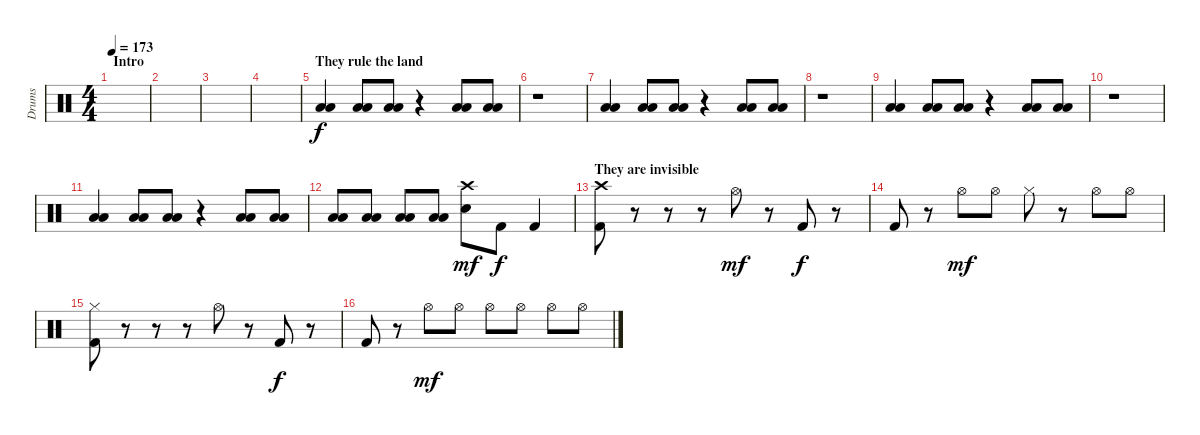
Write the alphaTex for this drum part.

\track ("Drums" "Drums") {instrument percussion}
\staff {score}
\articulation defaults
\ts (4 4)
\section ("" "Intro")
\tempo 173
\clef neutral
\ks c
|
|
|
|
\section ("" "They rule the land")
("Low Tom (hit)" "Low Floor Tom (hit)").4 ("Low Tom (hit)" "Low Floor Tom (hit)").8 ("Low Tom (hit)" "Low Floor Tom (hit)").8 r.4 ("Low Tom (hit)" "Low Floor Tom (hit)").8 ("Low Tom (hit)" "Low Floor Tom (hit)").8 |
r.1 |
("Low Tom (hit)" "Low Floor Tom (hit)").4 ("Low Tom (hit)" "Low Floor Tom (hit)").8 ("Low Tom (hit)" "Low Floor Tom (hit)").8 r.4 ("Low Tom (hit)" "Low Floor Tom (hit)").8 ("Low Tom (hit)" "Low Floor Tom (hit)").8 |
r.1 |
("Low Tom (hit)" "Low Floor Tom (hit)").4 ("Low Tom (hit)" "Low Floor Tom (hit)").8 ("Low Tom (hit)" "Low Floor Tom (hit)").8 r.4 ("Low Tom (hit)" "Low Floor Tom (hit)").8 ("Low Tom (hit)" "Low Floor Tom (hit)").8 |
r.1 |
("Low Tom (hit)" "Low Floor Tom (hit)").4 ("Low Tom (hit)" "Low Floor Tom (hit)").8 ("Low Tom (hit)" "Low Floor Tom (hit)").8 r.4 ("Low Tom (hit)" "Low Floor Tom (hit)").8 ("Low Tom (hit)" "Low Floor Tom (hit)").8 |
("Low Tom (hit)" "Low Floor Tom (hit)").8 ("Low Tom (hit)" "Low Floor Tom (hit)").8 ("Low Tom (hit)" "Low Floor Tom (hit)").8 ("Low Tom (hit)" "Low Floor Tom (hit)").8 ("Crash high (hit)" "Snare (hit) 2").8{dy mf} "Kick (hit) 2".8{dy f} "Kick (hit) 2".4 |
\section ("" "They are invisible")
("Crash high (hit)" "Kick (hit) 2").8 r.8 r.8 r.8 "Hi-Hat (open)".8{dy mf} r.8 "Kick (hit) 2".8{dy f} r.8 |
"Kick (hit) 2".8 r.8 "Hi-Hat (open)".8{dy mf} "Hi-Hat (open)".8 "Hi-Hat (closed)".8 r.8 "Hi-Hat (open)".8 "Hi-Hat (open)".8 |
("Hi-Hat (closed)" "Kick (hit) 2").8 r.8 r.8 r.8 "Hi-Hat (open)".8 r.8 "Kick (hit) 2".8{dy f} r.8 |
"Kick (hit) 2".8 r.8 "Hi-Hat (open)".8{dy mf} "Hi-Hat (open)".8 "Hi-Hat (open)".8 "Hi-Hat (open)".8 "Hi-Hat (open)".8 "Hi-Hat (open)".8
